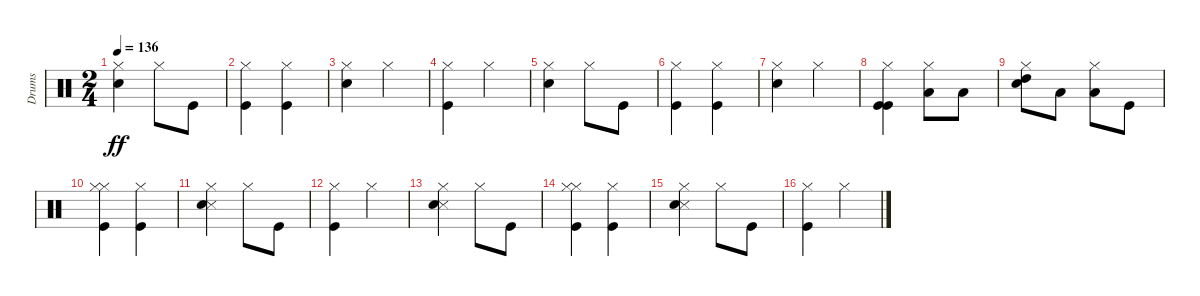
\track ("Drums" "Drums") {instrument percussion}
\staff {score}
\articulation defaults
\ts (2 4)
\tempo 136
\clef neutral
\ks c
("Hi-Hat (closed)" "Snare (hit) 2").4{dy ff} "Hi-Hat (closed)".8 "Kick (hit)".8 |
("Kick (hit)" "Hi-Hat (closed)").4 ("Kick (hit)" "Hi-Hat (closed)").4 |
("Hi-Hat (closed)" "Snare (hit) 2").4 "Hi-Hat (closed)".4 |
("Hi-Hat (closed)" "Kick (hit)").4 "Hi-Hat (closed)".4 |
("Hi-Hat (closed)" "Snare (hit) 2").4 "Hi-Hat (closed)".8 "Kick (hit)".8 |
("Kick (hit)" "Hi-Hat (closed)").4 ("Kick (hit)" "Hi-Hat (closed)").4 |
("Hi-Hat (closed)" "Snare (hit) 2").4 "Hi-Hat (closed)".4 |
("Kick (hit)" "Hi-Hat (closed)" "Kick (hit)").4 ("Low Floor Tom (hit)" "Hi-Hat (closed)").8 "Low Floor Tom (hit)".8 |
("High Tom (hit)" "Hi-Hat (closed)" "Snare (hit) 2").8 "Low Tom (hit)".8 ("Low Floor Tom (hit)" "Hi-Hat (closed)").8 "Kick (hit)".8 |
("Kick (hit)" "Hi-Hat (closed)" "Hi-Hat (closed)").4 ("Kick (hit)" "Hi-Hat (closed)").4 |
("Snare (side stick) 3" "Hi-Hat (closed)" "Snare (hit) 2").4 "Hi-Hat (closed)".8 "Kick (hit)".8 |
("Kick (hit)" "Hi-Hat (closed)").4 "Hi-Hat (closed)".4 |
("Snare (side stick) 3" "Hi-Hat (closed)" "Snare (hit) 2").4 "Hi-Hat (closed)".8 "Kick (hit)".8 |
("Kick (hit)" "Hi-Hat (closed)" "Hi-Hat (closed)").4 ("Kick (hit)" "Hi-Hat (closed)").4 |
("Snare (side stick) 3" "Hi-Hat (closed)" "Snare (hit) 2").4 "Hi-Hat (closed)".8 "Kick (hit)".8 |
("Kick (hit)" "Hi-Hat (closed)").4 "Hi-Hat (closed)".4
